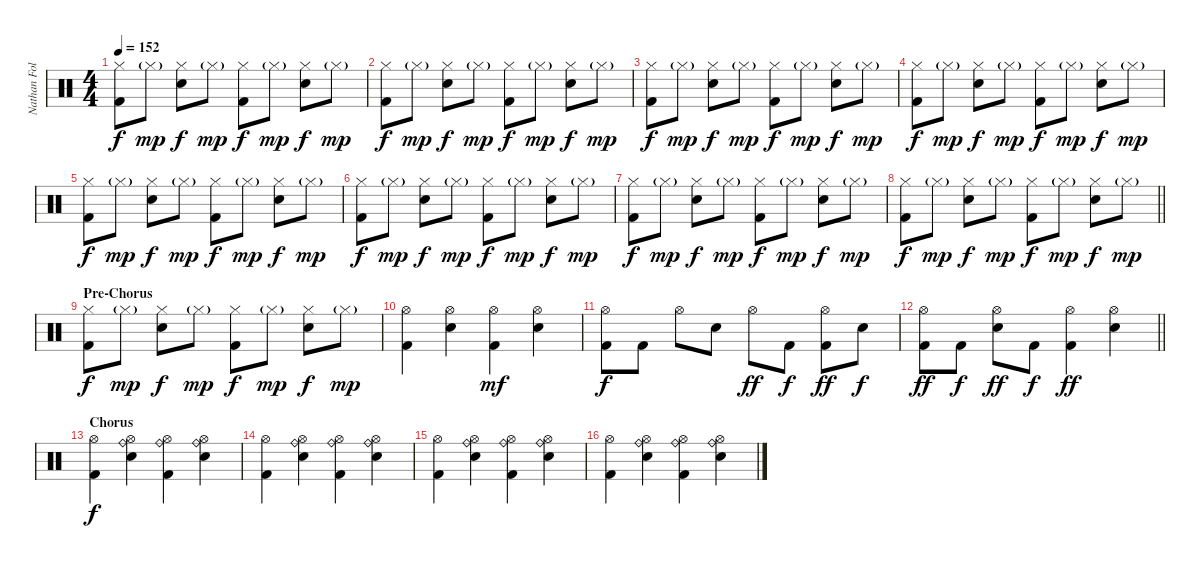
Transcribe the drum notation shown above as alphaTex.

\track ("Nathan Followill" "Nathan Fol") {instrument percussion}
\staff {score}
\articulation defaults
\ts (4 4)
\tempo 152
\clef neutral
\ks c
("Hi-Hat (closed)" "Kick (hit) 2").8{dy f} "Hi-Hat (closed)"{g}.8{dy mp} ("Hi-Hat (closed)" "Electric Snare (hit)").8{dy f} "Hi-Hat (closed)"{g}.8{dy mp} ("Hi-Hat (closed)" "Kick (hit) 2").8{dy f} "Hi-Hat (closed)"{g}.8{dy mp} ("Hi-Hat (closed)" "Electric Snare (hit)").8{dy f} "Hi-Hat (closed)"{g}.8{dy mp} |
("Hi-Hat (closed)" "Kick (hit) 2").8{dy f} "Hi-Hat (closed)"{g}.8{dy mp} ("Hi-Hat (closed)" "Electric Snare (hit)").8{dy f} "Hi-Hat (closed)"{g}.8{dy mp} ("Hi-Hat (closed)" "Kick (hit) 2").8{dy f} "Hi-Hat (closed)"{g}.8{dy mp} ("Hi-Hat (closed)" "Electric Snare (hit)").8{dy f} "Hi-Hat (closed)"{g}.8{dy mp} |
("Hi-Hat (closed)" "Kick (hit) 2").8{dy f} "Hi-Hat (closed)"{g}.8{dy mp} ("Hi-Hat (closed)" "Electric Snare (hit)").8{dy f} "Hi-Hat (closed)"{g}.8{dy mp} ("Hi-Hat (closed)" "Kick (hit) 2").8{dy f} "Hi-Hat (closed)"{g}.8{dy mp} ("Hi-Hat (closed)" "Electric Snare (hit)").8{dy f} "Hi-Hat (closed)"{g}.8{dy mp} |
("Hi-Hat (closed)" "Kick (hit) 2").8{dy f} "Hi-Hat (closed)"{g}.8{dy mp} ("Hi-Hat (closed)" "Electric Snare (hit)").8{dy f} "Hi-Hat (closed)"{g}.8{dy mp} ("Hi-Hat (closed)" "Kick (hit) 2").8{dy f} "Hi-Hat (closed)"{g}.8{dy mp} ("Hi-Hat (closed)" "Electric Snare (hit)").8{dy f} "Hi-Hat (closed)"{g}.8{dy mp} |
("Hi-Hat (closed)" "Kick (hit) 2").8{dy f} "Hi-Hat (closed)"{g}.8{dy mp} ("Hi-Hat (closed)" "Electric Snare (hit)").8{dy f} "Hi-Hat (closed)"{g}.8{dy mp} ("Hi-Hat (closed)" "Kick (hit) 2").8{dy f} "Hi-Hat (closed)"{g}.8{dy mp} ("Hi-Hat (closed)" "Electric Snare (hit)").8{dy f} "Hi-Hat (closed)"{g}.8{dy mp} |
("Hi-Hat (closed)" "Kick (hit) 2").8{dy f} "Hi-Hat (closed)"{g}.8{dy mp} ("Hi-Hat (closed)" "Electric Snare (hit)").8{dy f} "Hi-Hat (closed)"{g}.8{dy mp} ("Hi-Hat (closed)" "Kick (hit) 2").8{dy f} "Hi-Hat (closed)"{g}.8{dy mp} ("Hi-Hat (closed)" "Electric Snare (hit)").8{dy f} "Hi-Hat (closed)"{g}.8{dy mp} |
("Hi-Hat (closed)" "Kick (hit) 2").8{dy f} "Hi-Hat (closed)"{g}.8{dy mp} ("Hi-Hat (closed)" "Electric Snare (hit)").8{dy f} "Hi-Hat (closed)"{g}.8{dy mp} ("Hi-Hat (closed)" "Kick (hit) 2").8{dy f} "Hi-Hat (closed)"{g}.8{dy mp} ("Hi-Hat (closed)" "Electric Snare (hit)").8{dy f} "Hi-Hat (closed)"{g}.8{dy mp} |
\barLineRight lightlight
("Hi-Hat (closed)" "Kick (hit) 2").8{dy f} "Hi-Hat (closed)"{g}.8{dy mp} ("Hi-Hat (closed)" "Electric Snare (hit)").8{dy f} "Hi-Hat (closed)"{g}.8{dy mp} ("Hi-Hat (closed)" "Kick (hit) 2").8{dy f} "Hi-Hat (closed)"{g}.8{dy mp} ("Hi-Hat (closed)" "Electric Snare (hit)").8{dy f} "Hi-Hat (closed)"{g}.8{dy mp} |
\section ("" "Pre-Chorus")
("Hi-Hat (closed)" "Kick (hit) 2").8{dy f} "Hi-Hat (closed)"{g}.8{dy mp} ("Hi-Hat (closed)" "Electric Snare (hit)").8{dy f} "Hi-Hat (closed)"{g}.8{dy mp} ("Hi-Hat (closed)" "Kick (hit) 2").8{dy f} "Hi-Hat (closed)"{g}.8{dy mp} ("Hi-Hat (closed)" "Electric Snare (hit)").8{dy f} "Hi-Hat (closed)"{g}.8{dy mp} |
("Hi-Hat (open)" "Kick (hit) 2").4 ("Hi-Hat (open)" "Electric Snare (hit)").4 ("Hi-Hat (open)" "Kick (hit) 2").4{dy mf} ("Hi-Hat (open)" "Electric Snare (hit)").4 |
("Hi-Hat (open)" "Kick (hit) 2").8{dy f} "Kick (hit) 2".8 "Hi-Hat (open)".8 "Electric Snare (hit)".8 "Hi-Hat (open)".8{dy ff} "Kick (hit) 2".8{dy f} ("Hi-Hat (open)" "Kick (hit) 2").8{dy ff} "Electric Snare (hit)".8{dy f} |
\barLineRight lightlight
("Hi-Hat (open)" "Kick (hit) 2").8{dy ff} "Kick (hit) 2".8{dy f} ("Hi-Hat (open)" "Electric Snare (hit)").8{dy ff} "Kick (hit) 2".8{dy f} ("Hi-Hat (open)" "Kick (hit) 2").4{dy ff} ("Hi-Hat (open)" "Electric Snare (hit)").4 |
\section ("" "Chorus")
("Hi-Hat (open)" "Kick (hit) 2").4{dy f} ("Hi-Hat (open)" "Ride (bell)" "Electric Snare (hit)").4 ("Hi-Hat (open)" "Ride (bell)" "Kick (hit) 2").4 ("Hi-Hat (open)" "Ride (bell)" "Electric Snare (hit)").4 |
("Hi-Hat (open)" "Kick (hit) 2").4 ("Hi-Hat (open)" "Ride (bell)" "Electric Snare (hit)").4 ("Hi-Hat (open)" "Ride (bell)" "Kick (hit) 2").4 ("Hi-Hat (open)" "Ride (bell)" "Electric Snare (hit)").4 |
("Hi-Hat (open)" "Kick (hit) 2").4 ("Hi-Hat (open)" "Ride (bell)" "Electric Snare (hit)").4 ("Hi-Hat (open)" "Ride (bell)" "Kick (hit) 2").4 ("Hi-Hat (open)" "Ride (bell)" "Electric Snare (hit)").4 |
("Hi-Hat (open)" "Kick (hit) 2").4 ("Hi-Hat (open)" "Ride (bell)" "Electric Snare (hit)").4 ("Hi-Hat (open)" "Ride (bell)" "Kick (hit) 2").4 ("Hi-Hat (open)" "Ride (bell)" "Electric Snare (hit)").4
